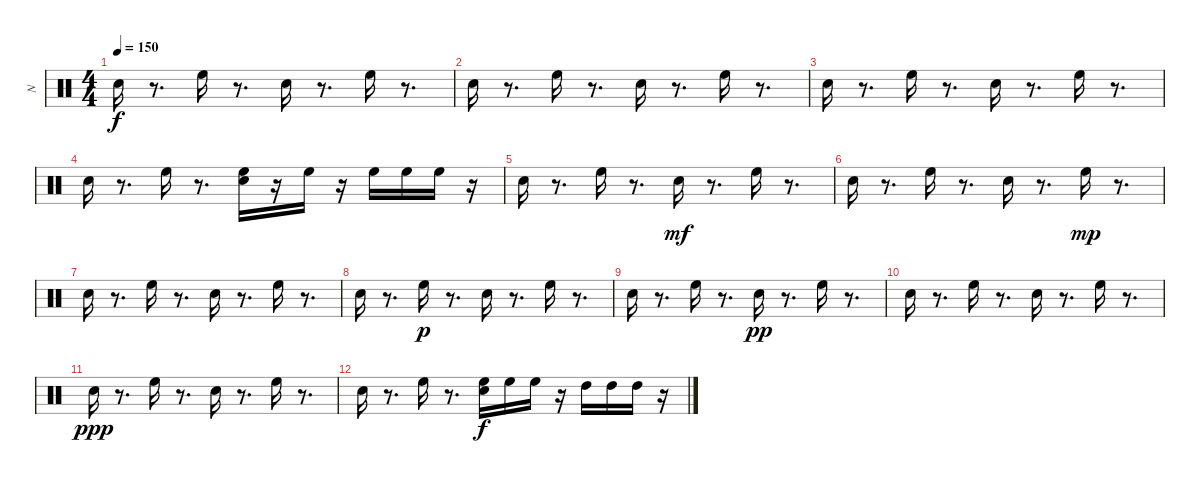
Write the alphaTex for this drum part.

\track ("N" "N") {instrument percussion}
\staff {score}
\articulation defaults
\ts (4 4)
\tempo 150
\clef neutral
\ks c "Electric Snare (hit)".16{dy f}
r.8{d} "High Floor Tom (hit)".16 r.8{d} "Electric Snare (hit)".16 r.8{d} "High Floor Tom (hit)".16 r.8{d} |
"Electric Snare (hit)".16 r.8{d} "High Floor Tom (hit)".16 r.8{d} "Electric Snare (hit)".16 r.8{d} "High Floor Tom (hit)".16 r.8{d} |
"Electric Snare (hit)".16 r.8{d} "High Floor Tom (hit)".16 r.8{d} "Electric Snare (hit)".16 r.8{d} "High Floor Tom (hit)".16 r.8{d} |
"Electric Snare (hit)".16 r.8{d} "High Floor Tom (hit)".16 r.8{d} ("High Floor Tom (hit)" "Electric Snare (hit)").16 r.16 "High Floor Tom (hit)".16 r.16 "High Floor Tom (hit)".16 "High Floor Tom (hit)".16 "High Floor Tom (hit)".16 r.16 |
"Electric Snare (hit)".16 r.8{d} "High Floor Tom (hit)".16 r.8{d} "Electric Snare (hit)".16{dy mf} r.8{d} "High Floor Tom (hit)".16 r.8{d} |
"Electric Snare (hit)".16 r.8{d} "High Floor Tom (hit)".16 r.8{d} "Electric Snare (hit)".16 r.8{d} "High Floor Tom (hit)".16{dy mp} r.8{d} |
"Electric Snare (hit)".16 r.8{d} "High Floor Tom (hit)".16 r.8{d} "Electric Snare (hit)".16 r.8{d} "High Floor Tom (hit)".16 r.8{d} |
"Electric Snare (hit)".16 r.8{d} "High Floor Tom (hit)".16{dy p} r.8{d} "Electric Snare (hit)".16 r.8{d} "High Floor Tom (hit)".16 r.8{d} |
"Electric Snare (hit)".16 r.8{d} "High Floor Tom (hit)".16 r.8{d} "Electric Snare (hit)".16{dy pp} r.8{d} "High Floor Tom (hit)".16 r.8{d} |
"Electric Snare (hit)".16 r.8{d} "High Floor Tom (hit)".16 r.8{d} "Electric Snare (hit)".16 r.8{d} "High Floor Tom (hit)".16 r.8{d} |
"Electric Snare (hit)".16{dy ppp} r.8{d} "High Floor Tom (hit)".16 r.8{d} "Electric Snare (hit)".16 r.8{d} "High Floor Tom (hit)".16 r.8{d} |
"Electric Snare (hit)".16 r.8{d} "High Floor Tom (hit)".16 r.8{d} ("High Floor Tom (hit)" "Electric Snare (hit)").16{dy f} "High Floor Tom (hit)".16 "High Floor Tom (hit)".16 r.16 "High Tom (hit)".16 "High Tom (hit)".16 "High Tom (hit)".16 r.16
